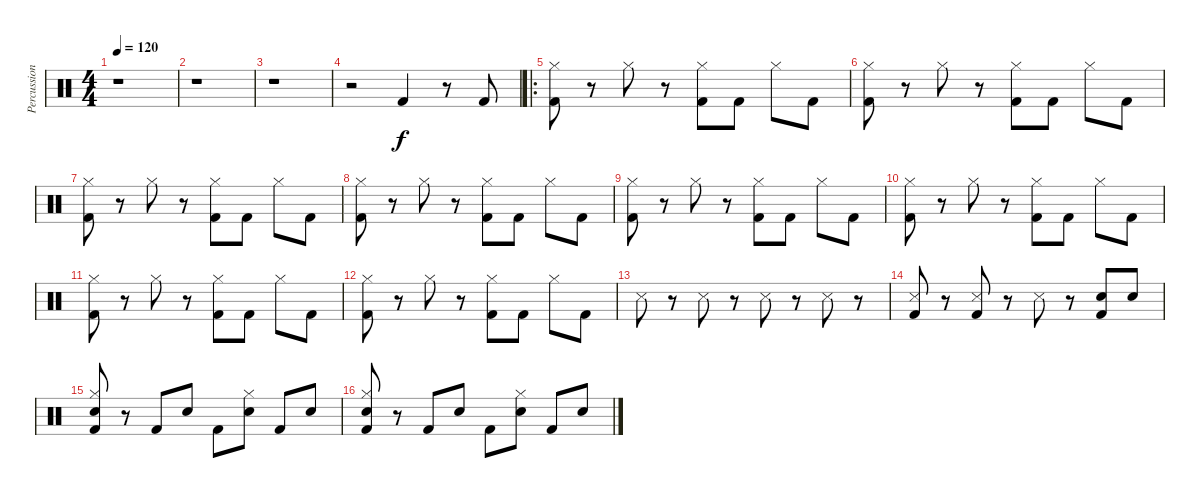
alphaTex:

\track ("Percussion" "Percussion") {instrument percussion}
\staff {score}
\articulation defaults
\ts (4 4)
\tempo 120
\clef neutral
\ks c
r.1{dy f} |
r.1 |
r.1 |
r.2 "Kick (hit) 2".4 r.8 "Kick (hit) 2".8 |
\ro
("Hi-Hat (closed)" "Kick (hit) 2").8 r.8 "Hi-Hat (closed)".8 r.8 ("Hi-Hat (closed)" "Kick (hit) 2").8 "Kick (hit) 2".8 "Hi-Hat (closed)".8 "Kick (hit) 2".8 |
("Hi-Hat (closed)" "Kick (hit) 2").8 r.8 "Hi-Hat (closed)".8 r.8 ("Hi-Hat (closed)" "Kick (hit) 2").8 "Kick (hit) 2".8 "Hi-Hat (closed)".8 "Kick (hit) 2".8 |
("Hi-Hat (closed)" "Kick (hit) 2").8 r.8 "Hi-Hat (closed)".8 r.8 ("Hi-Hat (closed)" "Kick (hit) 2").8 "Kick (hit) 2".8 "Hi-Hat (closed)".8 "Kick (hit) 2".8 |
("Hi-Hat (closed)" "Kick (hit) 2").8 r.8 "Hi-Hat (closed)".8 r.8 ("Hi-Hat (closed)" "Kick (hit) 2").8 "Kick (hit) 2".8 "Hi-Hat (closed)".8 "Kick (hit) 2".8 |
("Hi-Hat (closed)" "Kick (hit) 2").8 r.8 "Hi-Hat (closed)".8 r.8 ("Hi-Hat (closed)" "Kick (hit) 2").8 "Kick (hit) 2".8 "Hi-Hat (closed)".8 "Kick (hit) 2".8 |
("Hi-Hat (closed)" "Kick (hit) 2").8 r.8 "Hi-Hat (closed)".8 r.8 ("Hi-Hat (closed)" "Kick (hit) 2").8 "Kick (hit) 2".8 "Hi-Hat (closed)".8 "Kick (hit) 2".8 |
("Hi-Hat (closed)" "Kick (hit) 2").8 r.8 "Hi-Hat (closed)".8 r.8 ("Hi-Hat (closed)" "Kick (hit) 2").8 "Kick (hit) 2".8 "Hi-Hat (closed)".8 "Kick (hit) 2".8 |
("Hi-Hat (closed)" "Kick (hit) 2").8 r.8 "Hi-Hat (closed)".8 r.8 ("Hi-Hat (closed)" "Kick (hit) 2").8 "Kick (hit) 2".8 "Hi-Hat (closed)".8 "Kick (hit) 2".8 |
"Snare (side stick) 3".8 r.8 "Snare (side stick) 3".8 r.8 "Snare (side stick) 3".8 r.8 "Snare (side stick) 3".8 r.8 |
("Snare (side stick) 3" "Kick (hit) 2").8 r.8 ("Snare (side stick) 3" "Kick (hit) 2").8 r.8 "Snare (side stick) 3".8 r.8 ("Snare (hit) 2" "Kick (hit) 2").8 "Snare (hit) 2".8 |
("Hi-Hat (closed)" "Snare (hit) 2" "Kick (hit) 2").8 r.8 "Kick (hit) 2".8 "Snare (hit) 2".8 "Kick (hit) 2".8 ("Hi-Hat (closed)" "Snare (hit) 2").8 "Kick (hit) 2".8 "Snare (hit) 2".8 |
("Hi-Hat (closed)" "Snare (hit) 2" "Kick (hit) 2").8 r.8 "Kick (hit) 2".8 "Snare (hit) 2".8 "Kick (hit) 2".8 ("Hi-Hat (closed)" "Snare (hit) 2").8 "Kick (hit) 2".8 "Snare (hit) 2".8
